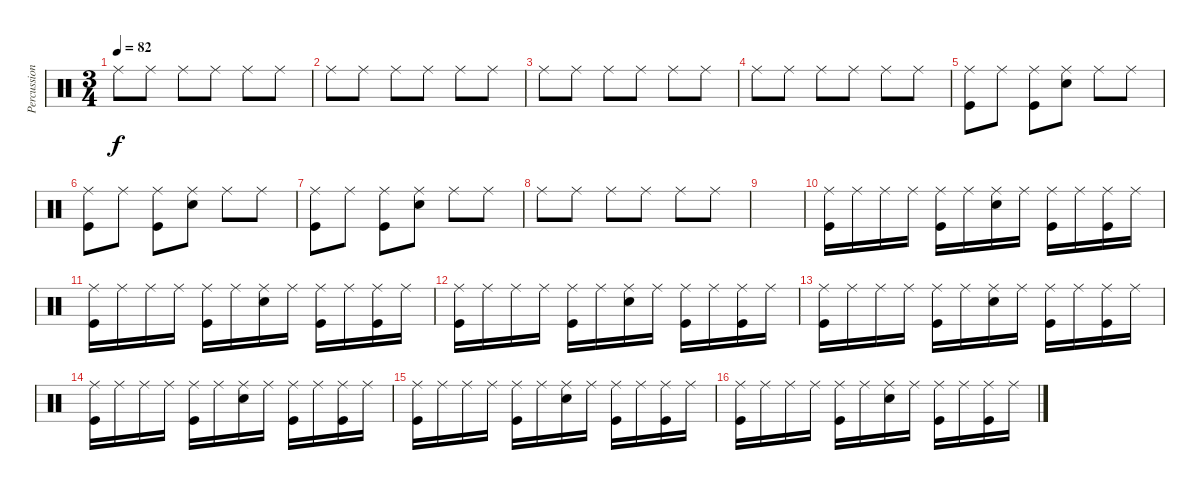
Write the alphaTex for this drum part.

\track ("Percussions" "Percussion") {instrument percussion}
\staff {score}
\articulation defaults
\ts (3 4)
\tempo 82
\clef neutral
\ks c "Ride (middle)".8{dy f} "Ride (middle)".8 "Ride (middle)".8 "Ride (middle)".8 "Ride (middle)".8 "Ride (middle)".8
|
"Ride (middle)".8 "Ride (middle)".8 "Ride (middle)".8 "Ride (middle)".8 "Ride (middle)".8 "Ride (middle)".8 |
"Ride (middle)".8 "Ride (middle)".8 "Ride (middle)".8 "Ride (middle)".8 "Ride (middle)".8 "Ride (middle)".8 |
"Ride (middle)".8 "Ride (middle)".8 "Ride (middle)".8 "Ride (middle)".8 "Ride (middle)".8 "Ride (middle)".8 |
("Ride (middle)" "Kick (hit)").8 "Ride (middle)".8 ("Ride (middle)" "Kick (hit)").8 ("Ride (middle)" "Electric Snare (hit)").8 "Ride (middle)".8 "Ride (middle)".8 |
("Ride (middle)" "Kick (hit)").8 "Ride (middle)".8 ("Ride (middle)" "Kick (hit)").8 ("Ride (middle)" "Electric Snare (hit)").8 "Ride (middle)".8 "Ride (middle)".8 |
("Ride (middle)" "Kick (hit)").8 "Ride (middle)".8 ("Ride (middle)" "Kick (hit)").8 ("Ride (middle)" "Electric Snare (hit)").8 "Ride (middle)".8 "Ride (middle)".8 |
"Ride (middle)".8 "Ride (middle)".8 "Ride (middle)".8 "Ride (middle)".8 "Ride (middle)".8 "Ride (middle)".8 |
|
("Ride (middle)" "Kick (hit)").16 "Ride (middle)".16 "Ride (middle)".16 "Ride (middle)".16 ("Ride (middle)" "Kick (hit)").16 "Ride (middle)".16 ("Ride (middle)" "Electric Snare (hit)").16 "Ride (middle)".16 ("Ride (middle)" "Kick (hit)").16 "Ride (middle)".16 ("Ride (middle)" "Kick (hit)").16 "Ride (middle)".16 |
("Ride (middle)" "Kick (hit)").16 "Ride (middle)".16 "Ride (middle)".16 "Ride (middle)".16 ("Ride (middle)" "Kick (hit)").16 "Ride (middle)".16 ("Ride (middle)" "Electric Snare (hit)").16 "Ride (middle)".16 ("Ride (middle)" "Kick (hit)").16 "Ride (middle)".16 ("Ride (middle)" "Kick (hit)").16 "Ride (middle)".16 |
("Ride (middle)" "Kick (hit)").16 "Ride (middle)".16 "Ride (middle)".16 "Ride (middle)".16 ("Ride (middle)" "Kick (hit)").16 "Ride (middle)".16 ("Ride (middle)" "Electric Snare (hit)").16 "Ride (middle)".16 ("Ride (middle)" "Kick (hit)").16 "Ride (middle)".16 ("Ride (middle)" "Kick (hit)").16 "Ride (middle)".16 |
("Ride (middle)" "Kick (hit)").16 "Ride (middle)".16 "Ride (middle)".16 "Ride (middle)".16 ("Ride (middle)" "Kick (hit)").16 "Ride (middle)".16 ("Ride (middle)" "Electric Snare (hit)").16 "Ride (middle)".16 ("Ride (middle)" "Kick (hit)").16 "Ride (middle)".16 ("Ride (middle)" "Kick (hit)").16 "Ride (middle)".16 |
("Ride (middle)" "Kick (hit)").16 "Ride (middle)".16 "Ride (middle)".16 "Ride (middle)".16 ("Ride (middle)" "Kick (hit)").16 "Ride (middle)".16 ("Ride (middle)" "Electric Snare (hit)").16 "Ride (middle)".16 ("Ride (middle)" "Kick (hit)").16 "Ride (middle)".16 ("Ride (middle)" "Kick (hit)").16 "Ride (middle)".16 |
("Ride (middle)" "Kick (hit)").16 "Ride (middle)".16 "Ride (middle)".16 "Ride (middle)".16 ("Ride (middle)" "Kick (hit)").16 "Ride (middle)".16 ("Ride (middle)" "Electric Snare (hit)").16 "Ride (middle)".16 ("Ride (middle)" "Kick (hit)").16 "Ride (middle)".16 ("Ride (middle)" "Kick (hit)").16 "Ride (middle)".16 |
("Ride (middle)" "Kick (hit)").16 "Ride (middle)".16 "Ride (middle)".16 "Ride (middle)".16 ("Ride (middle)" "Kick (hit)").16 "Ride (middle)".16 ("Ride (middle)" "Electric Snare (hit)").16 "Ride (middle)".16 ("Ride (middle)" "Kick (hit)").16 "Ride (middle)".16 ("Ride (middle)" "Kick (hit)").16 "Ride (middle)".16
